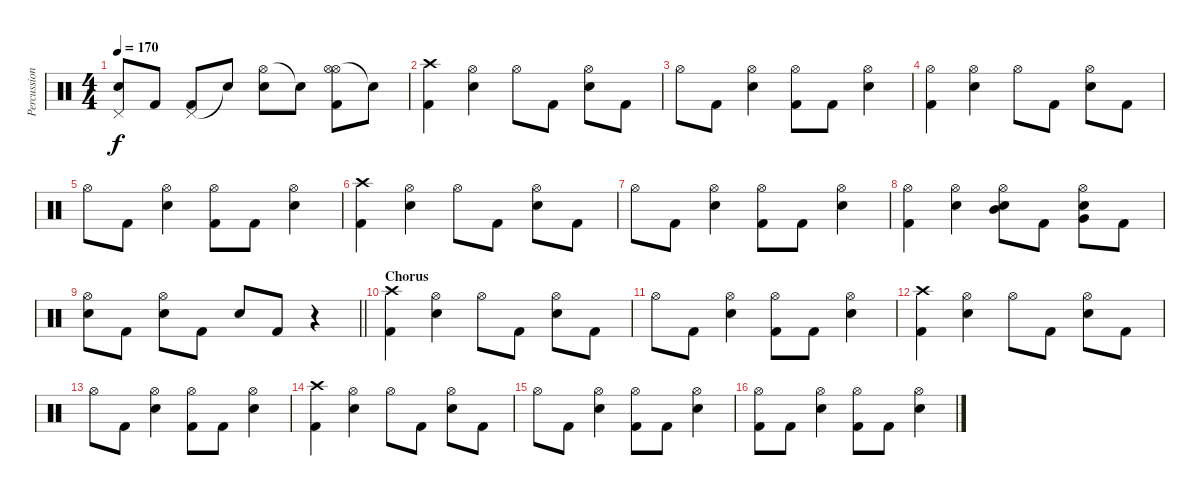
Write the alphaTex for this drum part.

\track ("Percussion" "Percussion") {instrument percussion}
\staff {score}
\articulation defaults
\ts (4 4)
\tempo 170
\clef neutral
\ks c
("Pedal Hi-Hat (hit)" "Snare (hit)"{t}).8{dy f} "Kick (hit) 2".8 ("Pedal Hi-Hat (hit)" "Kick (hit) 2").8 "Snare (hit)"{t}.8 ("Hi-Hat (open)" "Electric Snare (hit)").8 "Snare (hit)"{t}.8 ("Hi-Hat (open)" "Hi-Hat (open)" "Kick (hit) 2").8 "Snare (hit)"{t}.8 |
("Crash high (hit)" "Kick (hit) 2").4 ("Hi-Hat (open)" "Electric Snare (hit)").4 "Hi-Hat (open)".8 "Kick (hit) 2".8 ("Hi-Hat (open)" "Electric Snare (hit)").8 "Kick (hit) 2".8 |
"Hi-Hat (open)".8 "Kick (hit) 2".8 ("Hi-Hat (open)" "Electric Snare (hit)").4 ("Hi-Hat (open)" "Kick (hit) 2").8 "Kick (hit) 2".8 ("Hi-Hat (open)" "Electric Snare (hit)").4 |
("Hi-Hat (open)" "Kick (hit) 2").4 ("Hi-Hat (open)" "Electric Snare (hit)").4 "Hi-Hat (open)".8 "Kick (hit) 2".8 ("Hi-Hat (open)" "Electric Snare (hit)").8 "Kick (hit) 2".8 |
"Hi-Hat (open)".8 "Kick (hit) 2".8 ("Hi-Hat (open)" "Electric Snare (hit)").4 ("Hi-Hat (open)" "Kick (hit) 2").8 "Kick (hit) 2".8 ("Hi-Hat (open)" "Electric Snare (hit)").4 |
("Crash high (hit)" "Kick (hit) 2").4 ("Hi-Hat (open)" "Electric Snare (hit)").4 "Hi-Hat (open)".8 "Kick (hit) 2".8 ("Hi-Hat (open)" "Electric Snare (hit)").8 "Kick (hit) 2".8 |
"Hi-Hat (open)".8 "Kick (hit) 2".8 ("Hi-Hat (open)" "Electric Snare (hit)").4 ("Hi-Hat (open)" "Kick (hit) 2").8 "Kick (hit) 2".8 ("Hi-Hat (open)" "Electric Snare (hit)").4 |
("Hi-Hat (open)" "Kick (hit) 2").4 ("Hi-Hat (open)" "Electric Snare (hit)").4 ("Hi-Hat (open)" "Mid Tom (hit)" "Electric Snare (hit)").8 "Kick (hit) 2".8 ("Hi-Hat (open)" "Very Low Tom (hit)" "Electric Snare (hit)").8 "Kick (hit) 2".8 |
\barLineRight lightlight
("Hi-Hat (open)" "Electric Snare (hit)").8 "Kick (hit) 2".8 ("Hi-Hat (open)" "Electric Snare (hit)").8 "Kick (hit) 2".8 "Electric Snare (hit)".8 "Kick (hit) 2".8 r.4 |
\section ("" "Chorus")
("Crash high (hit)" "Kick (hit) 2").4 ("Hi-Hat (open)" "Electric Snare (hit)").4 "Hi-Hat (open)".8 "Kick (hit) 2".8 ("Hi-Hat (open)" "Electric Snare (hit)").8 "Kick (hit) 2".8 |
"Hi-Hat (open)".8 "Kick (hit) 2".8 ("Hi-Hat (open)" "Electric Snare (hit)").4 ("Hi-Hat (open)" "Kick (hit) 2").8 "Kick (hit) 2".8 ("Hi-Hat (open)" "Electric Snare (hit)").4 |
("Crash high (hit)" "Kick (hit) 2").4 ("Hi-Hat (open)" "Electric Snare (hit)").4 "Hi-Hat (open)".8 "Kick (hit) 2".8 ("Hi-Hat (open)" "Electric Snare (hit)").8 "Kick (hit) 2".8 |
"Hi-Hat (open)".8 "Kick (hit) 2".8 ("Hi-Hat (open)" "Electric Snare (hit)").4 ("Hi-Hat (open)" "Kick (hit) 2").8 "Kick (hit) 2".8 ("Hi-Hat (open)" "Electric Snare (hit)").4 |
("Crash high (hit)" "Kick (hit) 2").4 ("Hi-Hat (open)" "Electric Snare (hit)").4 "Hi-Hat (open)".8 "Kick (hit) 2".8 ("Hi-Hat (open)" "Electric Snare (hit)").8 "Kick (hit) 2".8 |
"Hi-Hat (open)".8 "Kick (hit) 2".8 ("Hi-Hat (open)" "Electric Snare (hit)").4 ("Hi-Hat (open)" "Kick (hit) 2").8 "Kick (hit) 2".8 ("Hi-Hat (open)" "Electric Snare (hit)").4 |
("Hi-Hat (open)" "Kick (hit) 2").8 "Kick (hit) 2".8 ("Hi-Hat (open)" "Electric Snare (hit)").4 ("Hi-Hat (open)" "Kick (hit) 2").8 "Kick (hit) 2".8 ("Hi-Hat (open)" "Electric Snare (hit)").4
